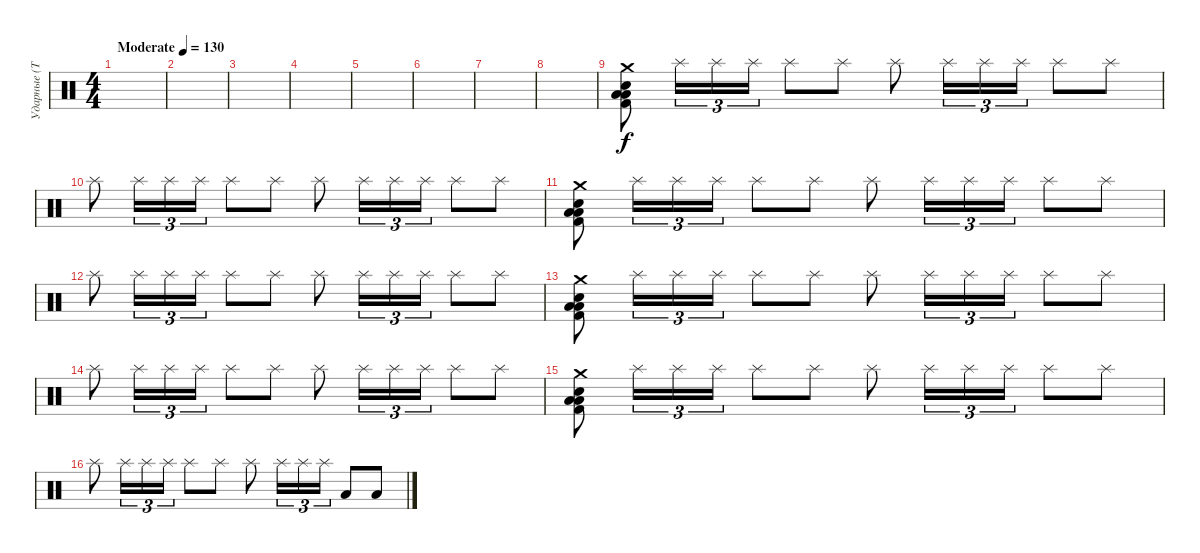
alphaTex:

\track ("Ударные (Тьодальв)" "Ударные (Т") {instrument percussion}
\staff {score}
\articulation defaults
\ts (4 4)
\tempo (130 "Moderate")
\clef neutral
\ks c
|
|
|
|
|
|
|
|
("Kick (hit) 2" "Low Tom (hit)" "Snare (hit) 2" "Low Tom (hit)" "Crash medium (hit)").8 "Splash (hit)".16{tu (3 2)} "Splash (hit)".16{tu (3 2)} "Splash (hit)".16{tu (3 2)} "Splash (hit)".8 "Splash (hit)".8 "Splash (hit)".8 "Splash (hit)".16{tu (3 2)} "Splash (hit)".16{tu (3 2)} "Splash (hit)".16{tu (3 2)} "Splash (hit)".8 "Splash (hit)".8 |
"Splash (hit)".8 "Splash (hit)".16{tu (3 2)} "Splash (hit)".16{tu (3 2)} "Splash (hit)".16{tu (3 2)} "Splash (hit)".8 "Splash (hit)".8 "Splash (hit)".8 "Splash (hit)".16{tu (3 2)} "Splash (hit)".16{tu (3 2)} "Splash (hit)".16{tu (3 2)} "Splash (hit)".8 "Splash (hit)".8 |
("Kick (hit) 2" "Low Tom (hit)" "Snare (hit) 2" "Low Tom (hit)" "Crash medium (hit)").8 "Splash (hit)".16{tu (3 2)} "Splash (hit)".16{tu (3 2)} "Splash (hit)".16{tu (3 2)} "Splash (hit)".8 "Splash (hit)".8 "Splash (hit)".8 "Splash (hit)".16{tu (3 2)} "Splash (hit)".16{tu (3 2)} "Splash (hit)".16{tu (3 2)} "Splash (hit)".8 "Splash (hit)".8 |
"Splash (hit)".8 "Splash (hit)".16{tu (3 2)} "Splash (hit)".16{tu (3 2)} "Splash (hit)".16{tu (3 2)} "Splash (hit)".8 "Splash (hit)".8 "Splash (hit)".8 "Splash (hit)".16{tu (3 2)} "Splash (hit)".16{tu (3 2)} "Splash (hit)".16{tu (3 2)} "Splash (hit)".8 "Splash (hit)".8 |
("Kick (hit) 2" "Low Tom (hit)" "Snare (hit) 2" "Low Tom (hit)" "Crash medium (hit)").8 "Splash (hit)".16{tu (3 2)} "Splash (hit)".16{tu (3 2)} "Splash (hit)".16{tu (3 2)} "Splash (hit)".8 "Splash (hit)".8 "Splash (hit)".8 "Splash (hit)".16{tu (3 2)} "Splash (hit)".16{tu (3 2)} "Splash (hit)".16{tu (3 2)} "Splash (hit)".8 "Splash (hit)".8 |
"Splash (hit)".8 "Splash (hit)".16{tu (3 2)} "Splash (hit)".16{tu (3 2)} "Splash (hit)".16{tu (3 2)} "Splash (hit)".8 "Splash (hit)".8 "Splash (hit)".8 "Splash (hit)".16{tu (3 2)} "Splash (hit)".16{tu (3 2)} "Splash (hit)".16{tu (3 2)} "Splash (hit)".8 "Splash (hit)".8 |
("Kick (hit) 2" "Low Tom (hit)" "Snare (hit) 2" "Low Tom (hit)" "Crash medium (hit)").8 "Splash (hit)".16{tu (3 2)} "Splash (hit)".16{tu (3 2)} "Splash (hit)".16{tu (3 2)} "Splash (hit)".8 "Splash (hit)".8 "Splash (hit)".8 "Splash (hit)".16{tu (3 2)} "Splash (hit)".16{tu (3 2)} "Splash (hit)".16{tu (3 2)} "Splash (hit)".8 "Splash (hit)".8 |
"Splash (hit)".8 "Splash (hit)".16{tu (3 2)} "Splash (hit)".16{tu (3 2)} "Splash (hit)".16{tu (3 2)} "Splash (hit)".8 "Splash (hit)".8 "Splash (hit)".8 "Splash (hit)".16{tu (3 2)} "Splash (hit)".16{tu (3 2)} "Splash (hit)".16{tu (3 2)} "Low Floor Tom (hit)".8 "Low Floor Tom (hit)".8
